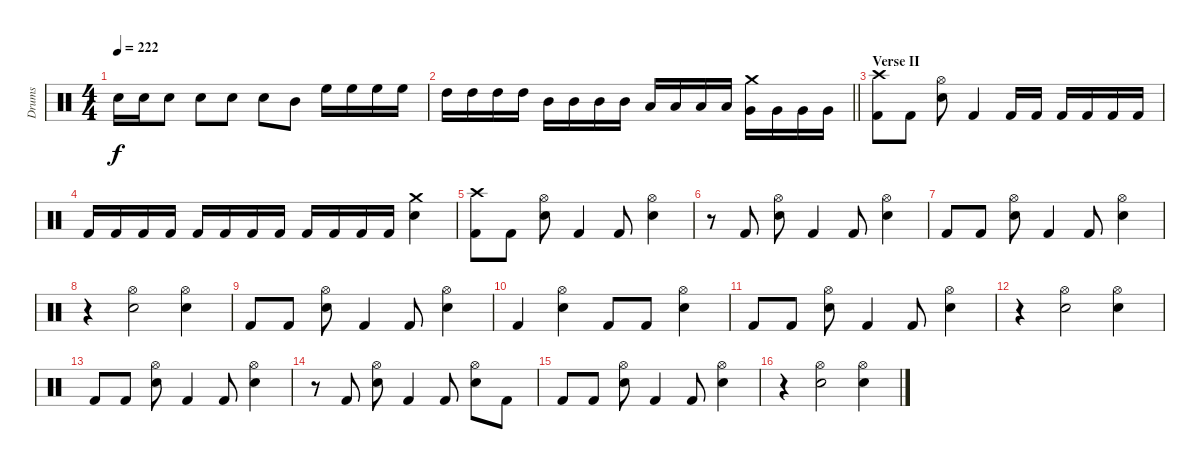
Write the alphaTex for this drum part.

\track ("Drums" "Drums") {instrument percussion}
\staff {score}
\articulation defaults
\ts (4 4)
\tempo 222
\clef neutral
\ks c "Snare (hit) 2".16{dy f} "Snare (hit) 2".16 "Snare (hit) 2".8 "Snare (hit) 2".8 "Snare (hit) 2".8 "Snare (hit) 2".8 "Mid Tom (hit)".8 "High Floor Tom (hit)".16 "High Floor Tom (hit)".16 "High Floor Tom (hit)".16 "High Floor Tom (hit)".16
|
\barLineRight lightlight "High Tom (hit)".16 "High Tom (hit)".16 "High Tom (hit)".16 "High Tom (hit)".16 "Mid Tom (hit)".16 "Mid Tom (hit)".16 "Mid Tom (hit)".16 "Mid Tom (hit)".16 "Low Tom (hit)".16 "Low Tom (hit)".16 "Low Tom (hit)".16 "Low Tom (hit)".16
("Crash medium (hit)" "Very Low Tom (hit)").16 "Very Low Tom (hit)".16 "Very Low Tom (hit)".16 "Very Low Tom (hit)".16 |
\section ("" "Verse II")
("Crash high (hit)" "Kick (hit) 2").8 "Kick (hit) 2".8 ("Hi-Hat (open)" "Snare (hit) 2").8 "Kick (hit) 2".4 "Kick (hit) 2".16 "Kick (hit) 2".16 "Kick (hit) 2".16 "Kick (hit) 2".16 "Kick (hit) 2".16 "Kick (hit) 2".16 |
"Kick (hit) 2".16 "Kick (hit) 2".16 "Kick (hit) 2".16 "Kick (hit) 2".16 "Kick (hit) 2".16 "Kick (hit) 2".16 "Kick (hit) 2".16 "Kick (hit) 2".16 "Kick (hit) 2".16 "Kick (hit) 2".16 "Kick (hit) 2".16 "Kick (hit) 2".16 ("Crash medium (hit)" "Snare (hit) 2").4 |
("Crash high (hit)" "Kick (hit) 2").8 "Kick (hit) 2".8 ("Hi-Hat (open)" "Snare (hit) 2").8 "Kick (hit) 2".4 "Kick (hit) 2".8 ("Hi-Hat (open)" "Snare (hit) 2").4 |
r.8 "Kick (hit) 2".8 ("Hi-Hat (open)" "Snare (hit) 2").8 "Kick (hit) 2".4 "Kick (hit) 2".8 ("Hi-Hat (open)" "Snare (hit) 2").4 |
"Kick (hit) 2".8 "Kick (hit) 2".8 ("Hi-Hat (open)" "Snare (hit) 2").8 "Kick (hit) 2".4 "Kick (hit) 2".8 ("Hi-Hat (open)" "Snare (hit) 2").4 |
r.4 ("Hi-Hat (open)" "Snare (hit) 2").2 ("Hi-Hat (open)" "Snare (hit) 2").4 |
"Kick (hit) 2".8 "Kick (hit) 2".8 ("Hi-Hat (open)" "Snare (hit) 2").8 "Kick (hit) 2".4 "Kick (hit) 2".8 ("Hi-Hat (open)" "Snare (hit) 2").4 |
"Kick (hit) 2".4 ("Hi-Hat (open)" "Snare (hit) 2").4 "Kick (hit) 2".8 "Kick (hit) 2".8 ("Hi-Hat (open)" "Snare (hit) 2").4 |
"Kick (hit) 2".8 "Kick (hit) 2".8 ("Hi-Hat (open)" "Snare (hit) 2").8 "Kick (hit) 2".4 "Kick (hit) 2".8 ("Hi-Hat (open)" "Snare (hit) 2").4 |
r.4 ("Hi-Hat (open)" "Snare (hit) 2").2 ("Hi-Hat (open)" "Snare (hit) 2").4 |
"Kick (hit) 2".8 "Kick (hit) 2".8 ("Hi-Hat (open)" "Snare (hit) 2").8 "Kick (hit) 2".4 "Kick (hit) 2".8 ("Hi-Hat (open)" "Snare (hit) 2").4 |
r.8 "Kick (hit) 2".8 ("Hi-Hat (open)" "Snare (hit) 2").8 "Kick (hit) 2".4 "Kick (hit) 2".8 ("Hi-Hat (open)" "Snare (hit) 2").8 "Kick (hit) 2".8 |
"Kick (hit) 2".8 "Kick (hit) 2".8 ("Hi-Hat (open)" "Snare (hit) 2").8 "Kick (hit) 2".4 "Kick (hit) 2".8 ("Hi-Hat (open)" "Snare (hit) 2").4 |
r.4 ("Hi-Hat (open)" "Snare (hit) 2").2 ("Hi-Hat (open)" "Snare (hit) 2").4
